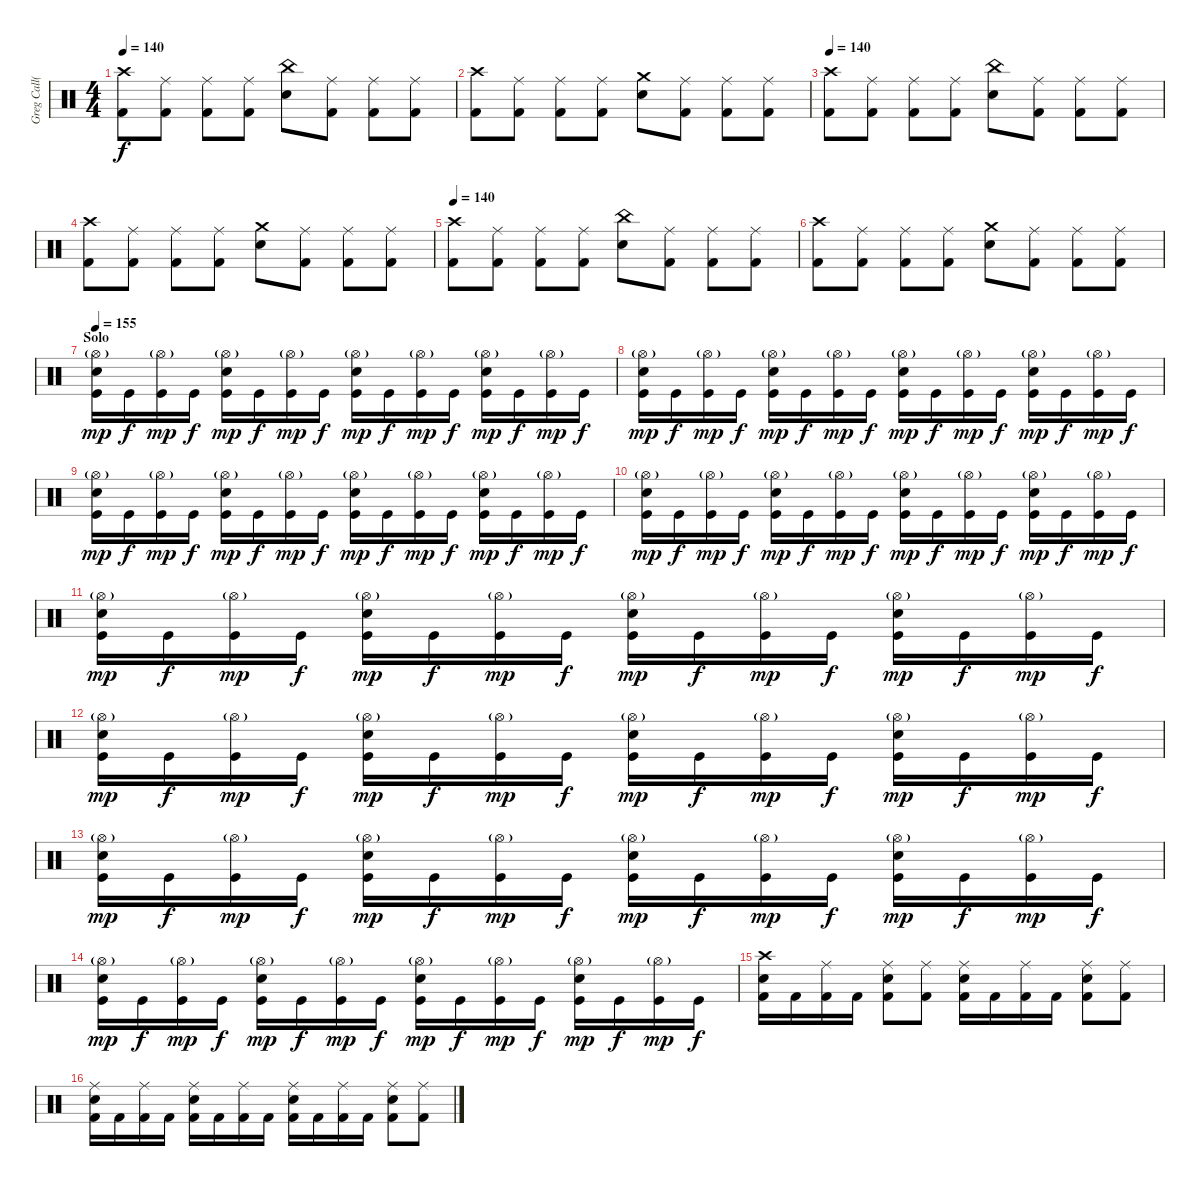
\track ("Greg Call(Drums)" "Greg Call(") {instrument percussion}
\staff {score}
\articulation defaults
\ts (4 4)
\tempo 140
\clef neutral
\ks c
("Crash high (hit)" "Kick (hit) 2").8{dy f} ("Ride (middle)" "Kick (hit) 2").8 ("Ride (middle)" "Kick (hit) 2").8 ("Ride (middle)" "Kick (hit) 2").8 ("China (hit)" "Snare (hit) 2").8 ("Ride (middle)" "Kick (hit) 2").8 ("Ride (middle)" "Kick (hit) 2").8 ("Ride (middle)" "Kick (hit) 2").8 |
("Crash high (hit)" "Kick (hit) 2").8 ("Ride (middle)" "Kick (hit) 2").8 ("Ride (middle)" "Kick (hit) 2").8 ("Ride (middle)" "Kick (hit) 2").8 ("Crash medium (hit)" "Snare (hit) 2").8 ("Ride (middle)" "Kick (hit) 2").8 ("Ride (middle)" "Kick (hit) 2").8 ("Ride (middle)" "Kick (hit) 2").8 |
\tempo 140
("Crash high (hit)" "Kick (hit) 2").8 ("Ride (middle)" "Kick (hit) 2").8 ("Ride (middle)" "Kick (hit) 2").8 ("Ride (middle)" "Kick (hit) 2").8 ("China (hit)" "Snare (hit) 2").8 ("Ride (middle)" "Kick (hit) 2").8 ("Ride (middle)" "Kick (hit) 2").8 ("Ride (middle)" "Kick (hit) 2").8 |
("Crash high (hit)" "Kick (hit) 2").8 ("Ride (middle)" "Kick (hit) 2").8 ("Ride (middle)" "Kick (hit) 2").8 ("Ride (middle)" "Kick (hit) 2").8 ("Crash medium (hit)" "Snare (hit) 2").8 ("Ride (middle)" "Kick (hit) 2").8 ("Ride (middle)" "Kick (hit) 2").8 ("Ride (middle)" "Kick (hit) 2").8 |
\tempo 140
("Crash high (hit)" "Kick (hit) 2").8 ("Ride (middle)" "Kick (hit) 2").8 ("Ride (middle)" "Kick (hit) 2").8 ("Ride (middle)" "Kick (hit) 2").8 ("China (hit)" "Snare (hit) 2").8 ("Ride (middle)" "Kick (hit) 2").8 ("Ride (middle)" "Kick (hit) 2").8 ("Ride (middle)" "Kick (hit) 2").8 |
("Crash high (hit)" "Kick (hit) 2").8 ("Ride (middle)" "Kick (hit) 2").8 ("Ride (middle)" "Kick (hit) 2").8 ("Ride (middle)" "Kick (hit) 2").8 ("Crash medium (hit)" "Snare (hit) 2").8 ("Ride (middle)" "Kick (hit) 2").8 ("Ride (middle)" "Kick (hit) 2").8 ("Ride (middle)" "Kick (hit) 2").8 |
\section ("" "Solo")
\tempo 155
("Kick (hit)" "Hi-Hat (open)"{g} "Snare (hit) 2").16{dy mp} "Kick (hit)".16{dy f} ("Hi-Hat (open)"{g} "Kick (hit)").16{dy mp} "Kick (hit)".16{dy f} ("Kick (hit)" "Hi-Hat (open)"{g} "Snare (hit) 2").16{dy mp} "Kick (hit)".16{dy f} ("Hi-Hat (open)"{g} "Kick (hit)").16{dy mp} "Kick (hit)".16{dy f} ("Kick (hit)" "Hi-Hat (open)"{g} "Snare (hit) 2").16{dy mp} "Kick (hit)".16{dy f} ("Hi-Hat (open)"{g} "Kick (hit)").16{dy mp} "Kick (hit)".16{dy f} ("Kick (hit)" "Hi-Hat (open)"{g} "Snare (hit) 2").16{dy mp} "Kick (hit)".16{dy f} ("Hi-Hat (open)"{g} "Kick (hit)").16{dy mp} "Kick (hit)".16{dy f} |
("Kick (hit)" "Hi-Hat (open)"{g} "Snare (hit) 2").16{dy mp} "Kick (hit)".16{dy f} ("Hi-Hat (open)"{g} "Kick (hit)").16{dy mp} "Kick (hit)".16{dy f} ("Kick (hit)" "Hi-Hat (open)"{g} "Snare (hit) 2").16{dy mp} "Kick (hit)".16{dy f} ("Hi-Hat (open)"{g} "Kick (hit)").16{dy mp} "Kick (hit)".16{dy f} ("Kick (hit)" "Hi-Hat (open)"{g} "Snare (hit) 2").16{dy mp} "Kick (hit)".16{dy f} ("Hi-Hat (open)"{g} "Kick (hit)").16{dy mp} "Kick (hit)".16{dy f} ("Kick (hit)" "Hi-Hat (open)"{g} "Snare (hit) 2").16{dy mp} "Kick (hit)".16{dy f} ("Hi-Hat (open)"{g} "Kick (hit)").16{dy mp} "Kick (hit)".16{dy f} |
("Kick (hit)" "Hi-Hat (open)"{g} "Snare (hit) 2").16{dy mp} "Kick (hit)".16{dy f} ("Hi-Hat (open)"{g} "Kick (hit)").16{dy mp} "Kick (hit)".16{dy f} ("Kick (hit)" "Hi-Hat (open)"{g} "Snare (hit) 2").16{dy mp} "Kick (hit)".16{dy f} ("Hi-Hat (open)"{g} "Kick (hit)").16{dy mp} "Kick (hit)".16{dy f} ("Kick (hit)" "Hi-Hat (open)"{g} "Snare (hit) 2").16{dy mp} "Kick (hit)".16{dy f} ("Hi-Hat (open)"{g} "Kick (hit)").16{dy mp} "Kick (hit)".16{dy f} ("Kick (hit)" "Hi-Hat (open)"{g} "Snare (hit) 2").16{dy mp} "Kick (hit)".16{dy f} ("Hi-Hat (open)"{g} "Kick (hit)").16{dy mp} "Kick (hit)".16{dy f} |
("Kick (hit)" "Hi-Hat (open)"{g} "Snare (hit) 2").16{dy mp} "Kick (hit)".16{dy f} ("Hi-Hat (open)"{g} "Kick (hit)").16{dy mp} "Kick (hit)".16{dy f} ("Kick (hit)" "Hi-Hat (open)"{g} "Snare (hit) 2").16{dy mp} "Kick (hit)".16{dy f} ("Hi-Hat (open)"{g} "Kick (hit)").16{dy mp} "Kick (hit)".16{dy f} ("Kick (hit)" "Hi-Hat (open)"{g} "Snare (hit) 2").16{dy mp} "Kick (hit)".16{dy f} ("Hi-Hat (open)"{g} "Kick (hit)").16{dy mp} "Kick (hit)".16{dy f} ("Kick (hit)" "Hi-Hat (open)"{g} "Snare (hit) 2").16{dy mp} "Kick (hit)".16{dy f} ("Hi-Hat (open)"{g} "Kick (hit)").16{dy mp} "Kick (hit)".16{dy f} |
("Kick (hit)" "Hi-Hat (open)"{g} "Snare (hit) 2").16{dy mp} "Kick (hit)".16{dy f} ("Hi-Hat (open)"{g} "Kick (hit)").16{dy mp} "Kick (hit)".16{dy f} ("Kick (hit)" "Hi-Hat (open)"{g} "Snare (hit) 2").16{dy mp} "Kick (hit)".16{dy f} ("Hi-Hat (open)"{g} "Kick (hit)").16{dy mp} "Kick (hit)".16{dy f} ("Kick (hit)" "Hi-Hat (open)"{g} "Snare (hit) 2").16{dy mp} "Kick (hit)".16{dy f} ("Hi-Hat (open)"{g} "Kick (hit)").16{dy mp} "Kick (hit)".16{dy f} ("Kick (hit)" "Hi-Hat (open)"{g} "Snare (hit) 2").16{dy mp} "Kick (hit)".16{dy f} ("Hi-Hat (open)"{g} "Kick (hit)").16{dy mp} "Kick (hit)".16{dy f} |
("Kick (hit)" "Hi-Hat (open)"{g} "Snare (hit) 2").16{dy mp} "Kick (hit)".16{dy f} ("Hi-Hat (open)"{g} "Kick (hit)").16{dy mp} "Kick (hit)".16{dy f} ("Kick (hit)" "Hi-Hat (open)"{g} "Snare (hit) 2").16{dy mp} "Kick (hit)".16{dy f} ("Hi-Hat (open)"{g} "Kick (hit)").16{dy mp} "Kick (hit)".16{dy f} ("Kick (hit)" "Hi-Hat (open)"{g} "Snare (hit) 2").16{dy mp} "Kick (hit)".16{dy f} ("Hi-Hat (open)"{g} "Kick (hit)").16{dy mp} "Kick (hit)".16{dy f} ("Kick (hit)" "Hi-Hat (open)"{g} "Snare (hit) 2").16{dy mp} "Kick (hit)".16{dy f} ("Hi-Hat (open)"{g} "Kick (hit)").16{dy mp} "Kick (hit)".16{dy f} |
("Kick (hit)" "Hi-Hat (open)"{g} "Snare (hit) 2").16{dy mp} "Kick (hit)".16{dy f} ("Hi-Hat (open)"{g} "Kick (hit)").16{dy mp} "Kick (hit)".16{dy f} ("Kick (hit)" "Hi-Hat (open)"{g} "Snare (hit) 2").16{dy mp} "Kick (hit)".16{dy f} ("Hi-Hat (open)"{g} "Kick (hit)").16{dy mp} "Kick (hit)".16{dy f} ("Kick (hit)" "Hi-Hat (open)"{g} "Snare (hit) 2").16{dy mp} "Kick (hit)".16{dy f} ("Hi-Hat (open)"{g} "Kick (hit)").16{dy mp} "Kick (hit)".16{dy f} ("Kick (hit)" "Hi-Hat (open)"{g} "Snare (hit) 2").16{dy mp} "Kick (hit)".16{dy f} ("Hi-Hat (open)"{g} "Kick (hit)").16{dy mp} "Kick (hit)".16{dy f} |
("Kick (hit)" "Hi-Hat (open)"{g} "Snare (hit) 2").16{dy mp} "Kick (hit)".16{dy f} ("Hi-Hat (open)"{g} "Kick (hit)").16{dy mp} "Kick (hit)".16{dy f} ("Kick (hit)" "Hi-Hat (open)"{g} "Snare (hit) 2").16{dy mp} "Kick (hit)".16{dy f} ("Hi-Hat (open)"{g} "Kick (hit)").16{dy mp} "Kick (hit)".16{dy f} ("Kick (hit)" "Hi-Hat (open)"{g} "Snare (hit) 2").16{dy mp} "Kick (hit)".16{dy f} ("Hi-Hat (open)"{g} "Kick (hit)").16{dy mp} "Kick (hit)".16{dy f} ("Kick (hit)" "Hi-Hat (open)"{g} "Snare (hit) 2").16{dy mp} "Kick (hit)".16{dy f} ("Hi-Hat (open)"{g} "Kick (hit)").16{dy mp} "Kick (hit)".16{dy f} |
("Kick (hit) 2" "Crash high (hit)" "Snare (hit) 2").16 "Kick (hit) 2".16 ("Ride (middle)" "Kick (hit) 2").16 "Kick (hit) 2".16 ("Kick (hit) 2" "Ride (middle)" "Snare (hit) 2").8 ("Ride (middle)" "Kick (hit) 2").8 ("Kick (hit) 2" "Ride (middle)" "Snare (hit) 2").16 "Kick (hit) 2".16 ("Ride (middle)" "Kick (hit) 2").16 "Kick (hit) 2".16 ("Ride (middle)" "Snare (hit) 2" "Kick (hit) 2").8 ("Ride (middle)" "Kick (hit) 2").8 |
("Kick (hit) 2" "Ride (middle)" "Snare (hit) 2").16 "Kick (hit) 2".16 ("Ride (middle)" "Kick (hit) 2").16 "Kick (hit) 2".16 ("Kick (hit) 2" "Ride (middle)" "Snare (hit) 2").16 "Kick (hit) 2".16 ("Ride (middle)" "Kick (hit) 2").16 "Kick (hit) 2".16 ("Kick (hit) 2" "Ride (middle)" "Snare (hit) 2").16 "Kick (hit) 2".16 ("Ride (middle)" "Kick (hit) 2").16 "Kick (hit) 2".16 ("Ride (middle)" "Snare (hit) 2" "Kick (hit) 2").8 ("Ride (middle)" "Kick (hit) 2").8
